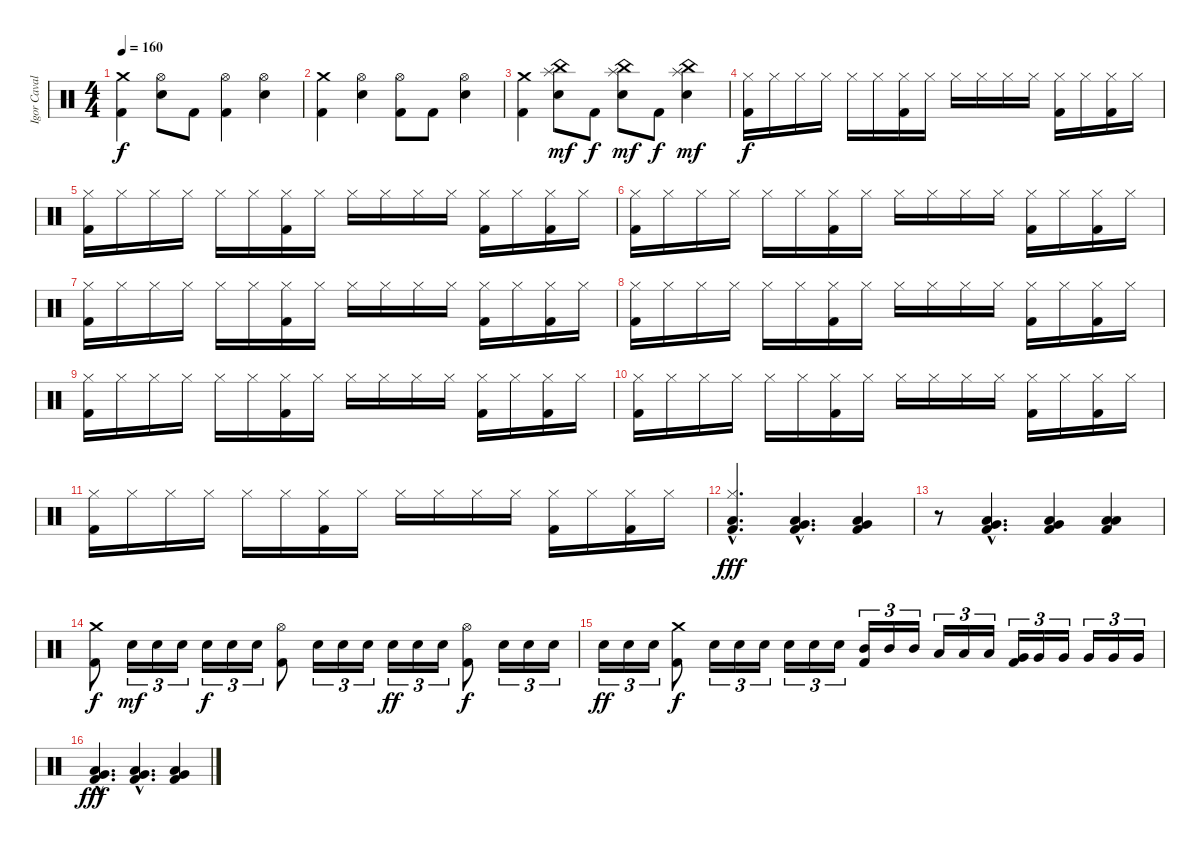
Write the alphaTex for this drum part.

\track ("Igor Cavalera" "Igor Caval") {instrument percussion}
\staff {score}
\articulation defaults
\ts (4 4)
\tempo 160
\clef neutral
\ks c
("Kick (hit) 2" "Crash medium (hit)").4{dy f} ("Electric Snare (hit)" "Hi-Hat (open)").8 "Kick (hit) 2".8 ("Kick (hit) 2" "Hi-Hat (open)").4 ("Electric Snare (hit)" "Hi-Hat (open)").4 |
("Kick (hit) 2" "Crash medium (hit)").4 ("Electric Snare (hit)" "Hi-Hat (open)").4 ("Kick (hit) 2" "Hi-Hat (open)").8 "Kick (hit) 2".8 ("Electric Snare (hit)" "Hi-Hat (open)").4 |
("Kick (hit) 2" "Crash medium (hit)").4 ("Splash (hit)" "Electric Snare (hit)" "China (hit)").8{dy mf} "Kick (hit) 2".8{dy f} ("Splash (hit)" "Electric Snare (hit)" "China (hit)").8{dy mf} "Kick (hit) 2".8{dy f} ("Splash (hit)" "Electric Snare (hit)" "China (hit)").4{dy mf} |
("Kick (hit) 2" "Hi-Hat (closed)").16{dy f} "Hi-Hat (closed)".16 "Hi-Hat (closed)".16 "Hi-Hat (closed)".16 "Hi-Hat (closed)".16 "Hi-Hat (closed)".16 ("Kick (hit) 2" "Hi-Hat (closed)").16 "Hi-Hat (closed)".16 "Hi-Hat (closed)".16 "Hi-Hat (closed)".16 "Hi-Hat (closed)".16 "Hi-Hat (closed)".16 ("Kick (hit) 2" "Hi-Hat (closed)").16 "Hi-Hat (closed)".16 ("Kick (hit) 2" "Hi-Hat (closed)").16 "Hi-Hat (closed)".16 |
("Kick (hit) 2" "Hi-Hat (closed)").16 "Hi-Hat (closed)".16 "Hi-Hat (closed)".16 "Hi-Hat (closed)".16 "Hi-Hat (closed)".16 "Hi-Hat (closed)".16 ("Kick (hit) 2" "Hi-Hat (closed)").16 "Hi-Hat (closed)".16 "Hi-Hat (closed)".16 "Hi-Hat (closed)".16 "Hi-Hat (closed)".16 "Hi-Hat (closed)".16 ("Kick (hit) 2" "Hi-Hat (closed)").16 "Hi-Hat (closed)".16 ("Kick (hit) 2" "Hi-Hat (closed)").16 "Hi-Hat (closed)".16 |
("Kick (hit) 2" "Hi-Hat (closed)").16 "Hi-Hat (closed)".16 "Hi-Hat (closed)".16 "Hi-Hat (closed)".16 "Hi-Hat (closed)".16 "Hi-Hat (closed)".16 ("Kick (hit) 2" "Hi-Hat (closed)").16 "Hi-Hat (closed)".16 "Hi-Hat (closed)".16 "Hi-Hat (closed)".16 "Hi-Hat (closed)".16 "Hi-Hat (closed)".16 ("Kick (hit) 2" "Hi-Hat (closed)").16 "Hi-Hat (closed)".16 ("Kick (hit) 2" "Hi-Hat (closed)").16 "Hi-Hat (closed)".16 |
("Kick (hit) 2" "Hi-Hat (closed)").16 "Hi-Hat (closed)".16 "Hi-Hat (closed)".16 "Hi-Hat (closed)".16 "Hi-Hat (closed)".16 "Hi-Hat (closed)".16 ("Kick (hit) 2" "Hi-Hat (closed)").16 "Hi-Hat (closed)".16 "Hi-Hat (closed)".16 "Hi-Hat (closed)".16 "Hi-Hat (closed)".16 "Hi-Hat (closed)".16 ("Kick (hit) 2" "Hi-Hat (closed)").16 "Hi-Hat (closed)".16 ("Kick (hit) 2" "Hi-Hat (closed)").16 "Hi-Hat (closed)".16 |
("Kick (hit) 2" "Hi-Hat (closed)").16 "Hi-Hat (closed)".16 "Hi-Hat (closed)".16 "Hi-Hat (closed)".16 "Hi-Hat (closed)".16 "Hi-Hat (closed)".16 ("Kick (hit) 2" "Hi-Hat (closed)").16 "Hi-Hat (closed)".16 "Hi-Hat (closed)".16 "Hi-Hat (closed)".16 "Hi-Hat (closed)".16 "Hi-Hat (closed)".16 ("Kick (hit) 2" "Hi-Hat (closed)").16 "Hi-Hat (closed)".16 ("Kick (hit) 2" "Hi-Hat (closed)").16 "Hi-Hat (closed)".16 |
("Kick (hit) 2" "Hi-Hat (closed)").16 "Hi-Hat (closed)".16 "Hi-Hat (closed)".16 "Hi-Hat (closed)".16 "Hi-Hat (closed)".16 "Hi-Hat (closed)".16 ("Kick (hit) 2" "Hi-Hat (closed)").16 "Hi-Hat (closed)".16 "Hi-Hat (closed)".16 "Hi-Hat (closed)".16 "Hi-Hat (closed)".16 "Hi-Hat (closed)".16 ("Kick (hit) 2" "Hi-Hat (closed)").16 "Hi-Hat (closed)".16 ("Kick (hit) 2" "Hi-Hat (closed)").16 "Hi-Hat (closed)".16 |
("Kick (hit) 2" "Hi-Hat (closed)").16 "Hi-Hat (closed)".16 "Hi-Hat (closed)".16 "Hi-Hat (closed)".16 "Hi-Hat (closed)".16 "Hi-Hat (closed)".16 ("Kick (hit) 2" "Hi-Hat (closed)").16 "Hi-Hat (closed)".16 "Hi-Hat (closed)".16 "Hi-Hat (closed)".16 "Hi-Hat (closed)".16 "Hi-Hat (closed)".16 ("Kick (hit) 2" "Hi-Hat (closed)").16 "Hi-Hat (closed)".16 ("Kick (hit) 2" "Hi-Hat (closed)").16 "Hi-Hat (closed)".16 |
("Kick (hit) 2" "Hi-Hat (closed)").16 "Hi-Hat (closed)".16 "Hi-Hat (closed)".16 "Hi-Hat (closed)".16 "Hi-Hat (closed)".16 "Hi-Hat (closed)".16 ("Kick (hit) 2" "Hi-Hat (closed)").16 "Hi-Hat (closed)".16 "Hi-Hat (closed)".16 "Hi-Hat (closed)".16 "Hi-Hat (closed)".16 "Hi-Hat (closed)".16 ("Kick (hit) 2" "Hi-Hat (closed)").16 "Hi-Hat (closed)".16 ("Kick (hit) 2" "Hi-Hat (closed)").16 "Hi-Hat (closed)".16 |
("Hi-Hat (closed)"{hac} "Kick (hit) 2"{hac} "Low Floor Tom (hit)"{hac}).4{d dy fff} ("Kick (hit) 2"{hac} "Low Floor Tom (hit)"{hac} "Very Low Tom (hit)"{hac}).4{d} ("Kick (hit) 2" "Low Floor Tom (hit)" "Very Low Tom (hit)").4 |
r.8 ("Kick (hit) 2"{hac} "Low Floor Tom (hit)"{hac} "Very Low Tom (hit)"{hac}).4{d} ("Kick (hit) 2" "Low Floor Tom (hit)" "Very Low Tom (hit)").4 ("Kick (hit) 2" "Low Floor Tom (hit)" "Low Tom (hit)").4 |
("Kick (hit) 2" "Crash medium (hit)").8{dy f} "Electric Snare (hit)".16{tu (3 2) dy mf} "Electric Snare (hit)".16{tu (3 2)} "Electric Snare (hit)".16{tu (3 2)} "Electric Snare (hit)".16{tu (3 2) dy f} "Electric Snare (hit)".16{tu (3 2)} "Electric Snare (hit)".16{tu (3 2)} ("Hi-Hat (open)" "Kick (hit) 2").8 "Electric Snare (hit)".16{tu (3 2)} "Electric Snare (hit)".16{tu (3 2)} "Electric Snare (hit)".16{tu (3 2)} "Electric Snare (hit)".16{tu (3 2) dy ff} "Electric Snare (hit)".16{tu (3 2)} "Electric Snare (hit)".16{tu (3 2)} ("Hi-Hat (open)" "Kick (hit) 2").8{dy f} "Electric Snare (hit)".16{tu (3 2)} "Electric Snare (hit)".16{tu (3 2)} "Electric Snare (hit)".16{tu (3 2)} |
"Electric Snare (hit)".16{tu (3 2) dy ff} "Electric Snare (hit)".16{tu (3 2)} "Electric Snare (hit)".16{tu (3 2)} ("Crash medium (hit)" "Kick (hit) 2").8{dy f} "Electric Snare (hit)".16{tu (3 2)} "Electric Snare (hit)".16{tu (3 2)} "Electric Snare (hit)".16{tu (3 2)} "Electric Snare (hit)".16{tu (3 2)} "Electric Snare (hit)".16{tu (3 2)} "Electric Snare (hit)".16{tu (3 2)} ("Kick (hit) 2" "Mid Tom (hit)").16{tu (3 2)} "Mid Tom (hit)".16{tu (3 2)} "Mid Tom (hit)".16{tu (3 2)} "Low Tom (hit)".16{tu (3 2)} "Low Tom (hit)".16{tu (3 2)} "Low Tom (hit)".16{tu (3 2)} ("Kick (hit) 2" "Very Low Tom (hit)").16{tu (3 2)} "Very Low Tom (hit)".16{tu (3 2)} "Very Low Tom (hit)".16{tu (3 2)} "Very Low Tom (hit)".16{tu (3 2)} "Very Low Tom (hit)".16{tu (3 2)} "Very Low Tom (hit)".16{tu (3 2)} |
("Very Low Tom (hit)"{hac} "Kick (hit) 2"{hac} "Low Floor Tom (hit)"{hac}).4{d dy fff} ("Kick (hit) 2"{hac} "Low Floor Tom (hit)"{hac} "Very Low Tom (hit)"{hac}).4{d} ("Kick (hit) 2" "Low Floor Tom (hit)" "Very Low Tom (hit)").4
